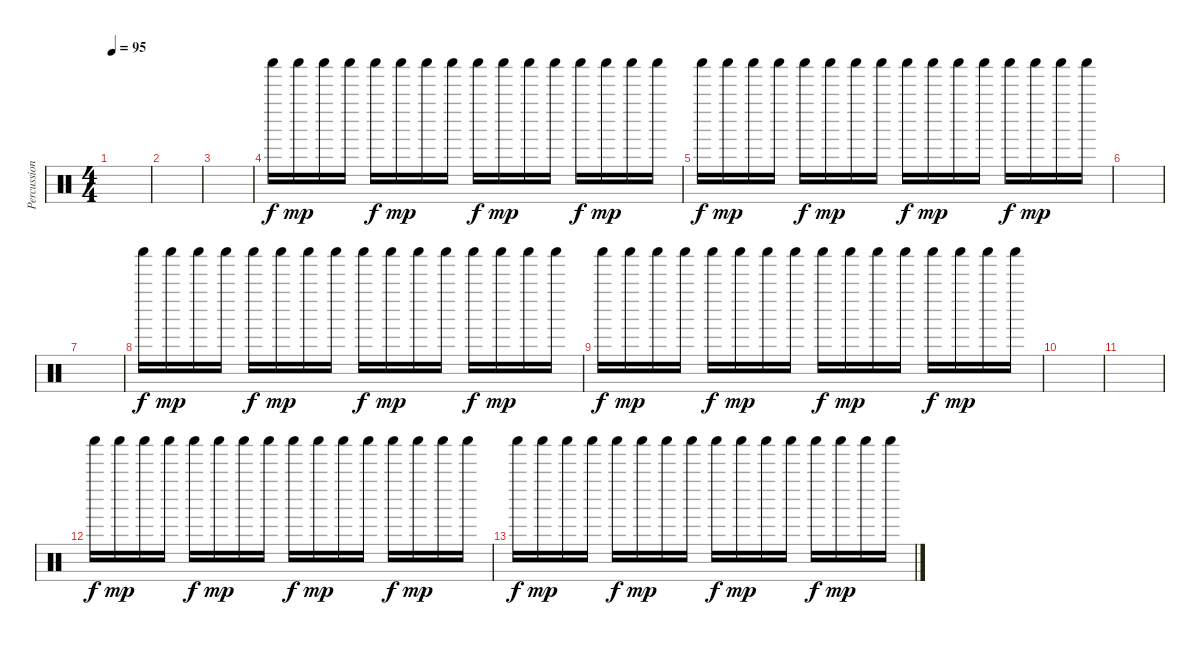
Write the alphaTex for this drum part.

\track ("Percussion" "Percussion") {instrument percussion}
\staff {score}
\articulation defaults
\ts (4 4)
\tempo 95
\clef neutral
\ks c
|
|
|
"Shaker (hit)".16 "Shaker (hit)".16{dy mp} "Shaker (hit)".16 "Shaker (hit)".16 "Shaker (hit)".16{dy f} "Shaker (hit)".16{dy mp} "Shaker (hit)".16 "Shaker (hit)".16 "Shaker (hit)".16{dy f} "Shaker (hit)".16{dy mp} "Shaker (hit)".16 "Shaker (hit)".16 "Shaker (hit)".16{dy f} "Shaker (hit)".16{dy mp} "Shaker (hit)".16 "Shaker (hit)".16 |
"Shaker (hit)".16{dy f} "Shaker (hit)".16{dy mp} "Shaker (hit)".16 "Shaker (hit)".16 "Shaker (hit)".16{dy f} "Shaker (hit)".16{dy mp} "Shaker (hit)".16 "Shaker (hit)".16 "Shaker (hit)".16{dy f} "Shaker (hit)".16{dy mp} "Shaker (hit)".16 "Shaker (hit)".16 "Shaker (hit)".16{dy f} "Shaker (hit)".16{dy mp} "Shaker (hit)".16 "Shaker (hit)".16 |
|
|
"Shaker (hit)".16{dy f} "Shaker (hit)".16{dy mp} "Shaker (hit)".16 "Shaker (hit)".16 "Shaker (hit)".16{dy f} "Shaker (hit)".16{dy mp} "Shaker (hit)".16 "Shaker (hit)".16 "Shaker (hit)".16{dy f} "Shaker (hit)".16{dy mp} "Shaker (hit)".16 "Shaker (hit)".16 "Shaker (hit)".16{dy f} "Shaker (hit)".16{dy mp} "Shaker (hit)".16 "Shaker (hit)".16 |
"Shaker (hit)".16{dy f} "Shaker (hit)".16{dy mp} "Shaker (hit)".16 "Shaker (hit)".16 "Shaker (hit)".16{dy f} "Shaker (hit)".16{dy mp} "Shaker (hit)".16 "Shaker (hit)".16 "Shaker (hit)".16{dy f} "Shaker (hit)".16{dy mp} "Shaker (hit)".16 "Shaker (hit)".16 "Shaker (hit)".16{dy f} "Shaker (hit)".16{dy mp} "Shaker (hit)".16 "Shaker (hit)".16 |
|
|
"Shaker (hit)".16{dy f} "Shaker (hit)".16{dy mp} "Shaker (hit)".16 "Shaker (hit)".16 "Shaker (hit)".16{dy f} "Shaker (hit)".16{dy mp} "Shaker (hit)".16 "Shaker (hit)".16 "Shaker (hit)".16{dy f} "Shaker (hit)".16{dy mp} "Shaker (hit)".16 "Shaker (hit)".16 "Shaker (hit)".16{dy f} "Shaker (hit)".16{dy mp} "Shaker (hit)".16 "Shaker (hit)".16 |
"Shaker (hit)".16{dy f} "Shaker (hit)".16{dy mp} "Shaker (hit)".16 "Shaker (hit)".16 "Shaker (hit)".16{dy f} "Shaker (hit)".16{dy mp} "Shaker (hit)".16 "Shaker (hit)".16 "Shaker (hit)".16{dy f} "Shaker (hit)".16{dy mp} "Shaker (hit)".16 "Shaker (hit)".16 "Shaker (hit)".16{dy f} "Shaker (hit)".16{dy mp} "Shaker (hit)".16 "Shaker (hit)".16
